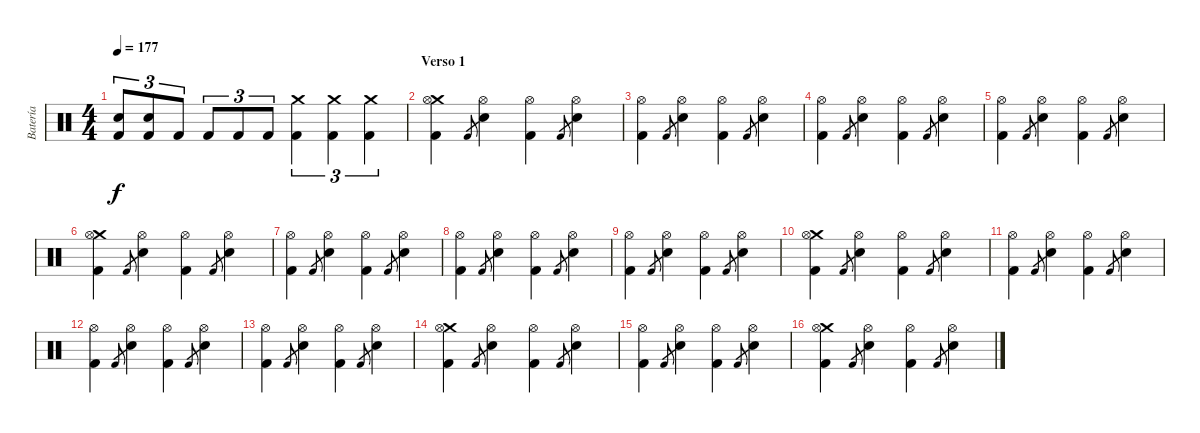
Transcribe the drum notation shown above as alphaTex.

\track ("Batería" "Batería") {instrument percussion}
\staff {score}
\articulation defaults
\ts (4 4)
\tempo 177
\clef neutral
\ks c
("Snare (hit) 2" "Kick (hit) 2").8{tu (3 2) dy f} ("Snare (hit) 2" "Kick (hit) 2").8{tu (3 2)} "Kick (hit) 2".8{tu (3 2)} "Kick (hit) 2".8{tu (3 2)} "Kick (hit) 2".8{tu (3 2)} "Kick (hit) 2".8{tu (3 2)} ("Crash medium (hit)" "Kick (hit) 2").4{tu (3 2)} ("Crash medium (hit)" "Kick (hit) 2").4{tu (3 2)} ("Crash medium (hit)" "Kick (hit) 2").4{tu (3 2)} |
\section ("" "Verso 1")
("Crash medium (hit)" "Hi-Hat (open)" "Kick (hit) 2").4 "Kick (hit) 2".8{gr} ("Hi-Hat (open)" "Snare (hit) 2").4 ("Hi-Hat (open)" "Kick (hit) 2").4 "Kick (hit) 2".8{gr} ("Hi-Hat (open)" "Snare (hit) 2").4 |
("Hi-Hat (open)" "Kick (hit) 2").4 "Kick (hit) 2".8{gr} ("Hi-Hat (open)" "Snare (hit) 2").4 ("Hi-Hat (open)" "Kick (hit) 2").4 "Kick (hit) 2".8{gr} ("Hi-Hat (open)" "Snare (hit) 2").4 |
("Hi-Hat (open)" "Kick (hit) 2").4 "Kick (hit) 2".8{gr} ("Hi-Hat (open)" "Snare (hit) 2").4 ("Hi-Hat (open)" "Kick (hit) 2").4 "Kick (hit) 2".8{gr} ("Hi-Hat (open)" "Snare (hit) 2").4 |
("Hi-Hat (open)" "Kick (hit) 2").4 "Kick (hit) 2".8{gr} ("Hi-Hat (open)" "Snare (hit) 2").4 ("Hi-Hat (open)" "Kick (hit) 2").4 "Kick (hit) 2".8{gr} ("Hi-Hat (open)" "Snare (hit) 2").4 |
("Crash medium (hit)" "Hi-Hat (open)" "Kick (hit) 2").4 "Kick (hit) 2".8{gr} ("Hi-Hat (open)" "Snare (hit) 2").4 ("Hi-Hat (open)" "Kick (hit) 2").4 "Kick (hit) 2".8{gr} ("Hi-Hat (open)" "Snare (hit) 2").4 |
("Hi-Hat (open)" "Kick (hit) 2").4 "Kick (hit) 2".8{gr} ("Hi-Hat (open)" "Snare (hit) 2").4 ("Hi-Hat (open)" "Kick (hit) 2").4 "Kick (hit) 2".8{gr} ("Hi-Hat (open)" "Snare (hit) 2").4 |
("Hi-Hat (open)" "Kick (hit) 2").4 "Kick (hit) 2".8{gr} ("Hi-Hat (open)" "Snare (hit) 2").4 ("Hi-Hat (open)" "Kick (hit) 2").4 "Kick (hit) 2".8{gr} ("Hi-Hat (open)" "Snare (hit) 2").4 |
("Hi-Hat (open)" "Kick (hit) 2").4 "Kick (hit) 2".8{gr} ("Hi-Hat (open)" "Snare (hit) 2").4 ("Hi-Hat (open)" "Kick (hit) 2").4 "Kick (hit) 2".8{gr} ("Hi-Hat (open)" "Snare (hit) 2").4 |
("Crash medium (hit)" "Hi-Hat (open)" "Kick (hit) 2").4 "Kick (hit) 2".8{gr} ("Hi-Hat (open)" "Snare (hit) 2").4 ("Hi-Hat (open)" "Kick (hit) 2").4 "Kick (hit) 2".8{gr} ("Hi-Hat (open)" "Snare (hit) 2").4 |
("Hi-Hat (open)" "Kick (hit) 2").4 "Kick (hit) 2".8{gr} ("Hi-Hat (open)" "Snare (hit) 2").4 ("Hi-Hat (open)" "Kick (hit) 2").4 "Kick (hit) 2".8{gr} ("Hi-Hat (open)" "Snare (hit) 2").4 |
("Hi-Hat (open)" "Kick (hit) 2").4 "Kick (hit) 2".8{gr} ("Hi-Hat (open)" "Snare (hit) 2").4 ("Hi-Hat (open)" "Kick (hit) 2").4 "Kick (hit) 2".8{gr} ("Hi-Hat (open)" "Snare (hit) 2").4 |
("Hi-Hat (open)" "Kick (hit) 2").4 "Kick (hit) 2".8{gr} ("Hi-Hat (open)" "Snare (hit) 2").4 ("Hi-Hat (open)" "Kick (hit) 2").4 "Kick (hit) 2".8{gr} ("Hi-Hat (open)" "Snare (hit) 2").4 |
("Crash medium (hit)" "Hi-Hat (open)" "Kick (hit) 2").4 "Kick (hit) 2".8{gr} ("Hi-Hat (open)" "Snare (hit) 2").4 ("Hi-Hat (open)" "Kick (hit) 2").4 "Kick (hit) 2".8{gr} ("Hi-Hat (open)" "Snare (hit) 2").4 |
("Hi-Hat (open)" "Kick (hit) 2").4 "Kick (hit) 2".8{gr} ("Hi-Hat (open)" "Snare (hit) 2").4 ("Hi-Hat (open)" "Kick (hit) 2").4 "Kick (hit) 2".8{gr} ("Hi-Hat (open)" "Snare (hit) 2").4 |
("Crash medium (hit)" "Hi-Hat (open)" "Kick (hit) 2").4 "Kick (hit) 2".8{gr} ("Hi-Hat (open)" "Snare (hit) 2").4 ("Hi-Hat (open)" "Kick (hit) 2").4 "Kick (hit) 2".8{gr} ("Hi-Hat (open)" "Snare (hit) 2").4
